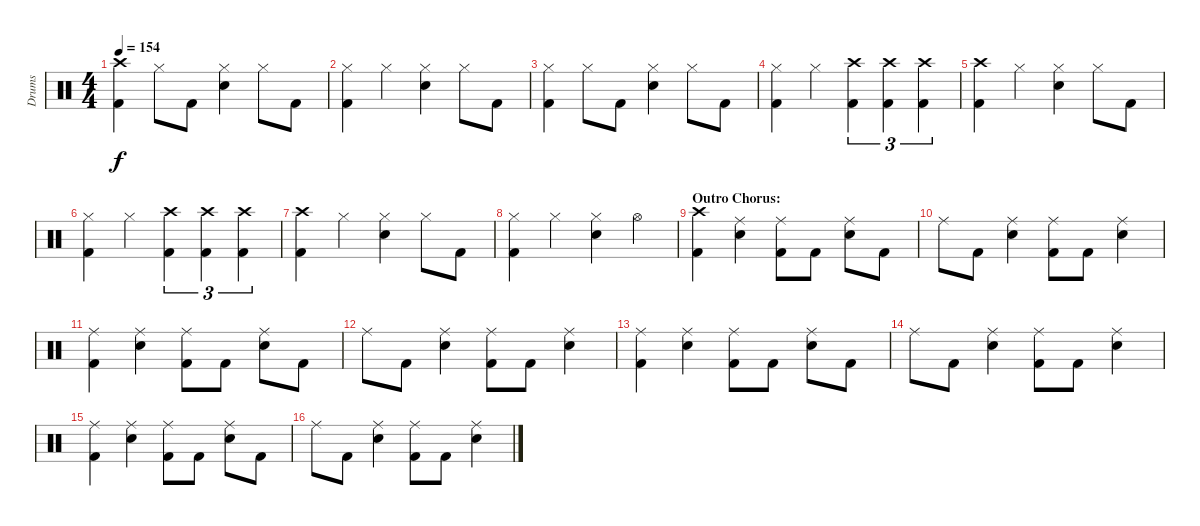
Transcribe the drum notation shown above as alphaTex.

\track ("Drums" "Drums") {instrument percussion}
\staff {score}
\articulation defaults
\ts (4 4)
\tempo 154
\clef neutral
\ks c
("Crash high (hit)" "Kick (hit) 2").4{dy f} "Hi-Hat (closed)".8 "Kick (hit) 2".8 ("Hi-Hat (closed)" "Snare (hit) 2").4 "Hi-Hat (closed)".8 "Kick (hit) 2".8 |
("Hi-Hat (closed)" "Kick (hit) 2").4 "Hi-Hat (closed)".4 ("Hi-Hat (closed)" "Snare (hit) 2").4 "Hi-Hat (closed)".8 "Kick (hit) 2".8 |
("Hi-Hat (closed)" "Kick (hit) 2").4 "Hi-Hat (closed)".8 "Kick (hit) 2".8 ("Hi-Hat (closed)" "Snare (hit) 2").4 "Hi-Hat (closed)".8 "Kick (hit) 2".8 |
("Hi-Hat (closed)" "Kick (hit) 2").4 "Hi-Hat (closed)".4 ("Crash high (hit)" "Kick (hit) 2").4{tu (3 2)} ("Crash high (hit)" "Kick (hit) 2").4{tu (3 2)} ("Crash high (hit)" "Kick (hit) 2").4{tu (3 2)} |
("Crash high (hit)" "Kick (hit) 2").4 "Hi-Hat (closed)".4 ("Hi-Hat (closed)" "Snare (hit) 2").4 "Hi-Hat (closed)".8 "Kick (hit) 2".8 |
("Hi-Hat (closed)" "Kick (hit) 2").4 "Hi-Hat (closed)".4 ("Crash high (hit)" "Kick (hit) 2").4{tu (3 2)} ("Crash high (hit)" "Kick (hit) 2").4{tu (3 2)} ("Crash high (hit)" "Kick (hit) 2").4{tu (3 2)} |
("Crash high (hit)" "Kick (hit) 2").4 "Hi-Hat (closed)".4 ("Hi-Hat (closed)" "Snare (hit) 2").4 "Hi-Hat (closed)".8 "Kick (hit) 2".8 |
("Hi-Hat (closed)" "Kick (hit) 2").4 "Hi-Hat (closed)".4 ("Hi-Hat (closed)" "Snare (hit) 2").4 "Hi-Hat (open)".4 |
\section ("" "Outro Chorus:")
("Crash high (hit)" "Kick (hit) 2").4 ("Ride (middle)" "Snare (hit) 2").4 ("Ride (middle)" "Kick (hit) 2").8 "Kick (hit) 2".8 ("Ride (middle)" "Snare (hit) 2").8 "Kick (hit) 2".8 |
"Ride (middle)".8 "Kick (hit) 2".8 ("Ride (middle)" "Snare (hit) 2").4 ("Ride (middle)" "Kick (hit) 2").8 "Kick (hit) 2".8 ("Ride (middle)" "Snare (hit) 2").4 |
("Ride (middle)" "Kick (hit) 2").4 ("Ride (middle)" "Snare (hit) 2").4 ("Ride (middle)" "Kick (hit) 2").8 "Kick (hit) 2".8 ("Ride (middle)" "Snare (hit) 2").8 "Kick (hit) 2".8 |
"Ride (middle)".8 "Kick (hit) 2".8 ("Ride (middle)" "Snare (hit) 2").4 ("Ride (middle)" "Kick (hit) 2").8 "Kick (hit) 2".8 ("Ride (middle)" "Snare (hit) 2").4 |
("Ride (middle)" "Kick (hit) 2").4 ("Ride (middle)" "Snare (hit) 2").4 ("Ride (middle)" "Kick (hit) 2").8 "Kick (hit) 2".8 ("Ride (middle)" "Snare (hit) 2").8 "Kick (hit) 2".8 |
"Ride (middle)".8 "Kick (hit) 2".8 ("Ride (middle)" "Snare (hit) 2").4 ("Ride (middle)" "Kick (hit) 2").8 "Kick (hit) 2".8 ("Ride (middle)" "Snare (hit) 2").4 |
("Ride (middle)" "Kick (hit) 2").4 ("Ride (middle)" "Snare (hit) 2").4 ("Ride (middle)" "Kick (hit) 2").8 "Kick (hit) 2".8 ("Ride (middle)" "Snare (hit) 2").8 "Kick (hit) 2".8 |
"Ride (middle)".8 "Kick (hit) 2".8 ("Ride (middle)" "Snare (hit) 2").4 ("Ride (middle)" "Kick (hit) 2").8 "Kick (hit) 2".8 ("Ride (middle)" "Snare (hit) 2").4
